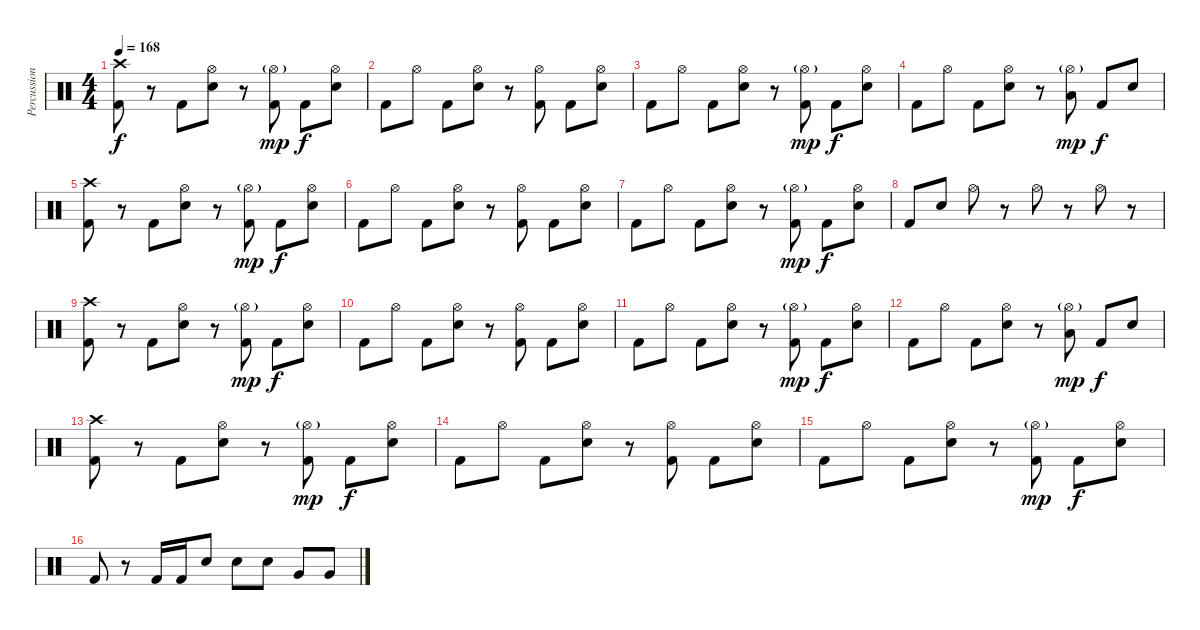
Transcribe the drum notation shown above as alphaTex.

\track ("Percussion" "Percussion") {instrument percussion}
\staff {score}
\articulation defaults
\ts (4 4)
\tempo 168
\clef neutral
\ks c
("Crash high (hit)" "Kick (hit) 2").8{dy f} r.8 "Kick (hit) 2".8 ("Hi-Hat (open)" "Snare (hit) 2").8 r.8 ("Hi-Hat (open)"{g} "Kick (hit) 2").8{dy mp} "Kick (hit) 2".8{dy f} ("Hi-Hat (open)" "Snare (hit) 2").8 |
"Kick (hit) 2".8 "Hi-Hat (open)".8 "Kick (hit) 2".8 ("Hi-Hat (open)" "Snare (hit) 2").8 r.8 ("Hi-Hat (open)" "Kick (hit) 2").8 "Kick (hit) 2".8 ("Hi-Hat (open)" "Snare (hit) 2").8 |
"Kick (hit) 2".8 "Hi-Hat (open)".8 "Kick (hit) 2".8 ("Hi-Hat (open)" "Snare (hit) 2").8 r.8 ("Hi-Hat (open)"{g} "Kick (hit) 2").8{dy mp} "Kick (hit) 2".8{dy f} ("Hi-Hat (open)" "Snare (hit) 2").8 |
"Kick (hit) 2".8 "Hi-Hat (open)".8 "Kick (hit) 2".8 ("Hi-Hat (open)" "Snare (hit) 2").8 r.8 ("Hi-Hat (open)"{g} "Low Tom (hit)").8{dy mp} "Kick (hit) 2".8{dy f} "Snare (hit) 2".8 |
("Crash high (hit)" "Kick (hit) 2").8 r.8 "Kick (hit) 2".8 ("Hi-Hat (open)" "Snare (hit) 2").8 r.8 ("Hi-Hat (open)"{g} "Kick (hit) 2").8{dy mp} "Kick (hit) 2".8{dy f} ("Hi-Hat (open)" "Snare (hit) 2").8 |
"Kick (hit) 2".8 "Hi-Hat (open)".8 "Kick (hit) 2".8 ("Hi-Hat (open)" "Snare (hit) 2").8 r.8 ("Hi-Hat (open)" "Kick (hit) 2").8 "Kick (hit) 2".8 ("Hi-Hat (open)" "Snare (hit) 2").8 |
"Kick (hit) 2".8 "Hi-Hat (open)".8 "Kick (hit) 2".8 ("Hi-Hat (open)" "Snare (hit) 2").8 r.8 ("Hi-Hat (open)"{g} "Kick (hit) 2").8{dy mp} "Kick (hit) 2".8{dy f} ("Hi-Hat (open)" "Snare (hit) 2").8 |
"Kick (hit) 2".8 "Snare (hit) 2".8 "Hi-Hat (open)".8 r.8 "Hi-Hat (open)".8 r.8 "Hi-Hat (open)".8 r.8 |
("Crash high (hit)" "Kick (hit) 2").8 r.8 "Kick (hit) 2".8 ("Hi-Hat (open)" "Snare (hit) 2").8 r.8 ("Hi-Hat (open)"{g} "Kick (hit) 2").8{dy mp} "Kick (hit) 2".8{dy f} ("Hi-Hat (open)" "Snare (hit) 2").8 |
"Kick (hit) 2".8 "Hi-Hat (open)".8 "Kick (hit) 2".8 ("Hi-Hat (open)" "Snare (hit) 2").8 r.8 ("Hi-Hat (open)" "Kick (hit) 2").8 "Kick (hit) 2".8 ("Hi-Hat (open)" "Snare (hit) 2").8 |
"Kick (hit) 2".8 "Hi-Hat (open)".8 "Kick (hit) 2".8 ("Hi-Hat (open)" "Snare (hit) 2").8 r.8 ("Hi-Hat (open)"{g} "Kick (hit) 2").8{dy mp} "Kick (hit) 2".8{dy f} ("Hi-Hat (open)" "Snare (hit) 2").8 |
"Kick (hit) 2".8 "Hi-Hat (open)".8 "Kick (hit) 2".8 ("Hi-Hat (open)" "Snare (hit) 2").8 r.8 ("Hi-Hat (open)"{g} "Low Tom (hit)").8{dy mp} "Kick (hit) 2".8{dy f} "Snare (hit) 2".8 |
("Crash high (hit)" "Kick (hit) 2").8 r.8 "Kick (hit) 2".8 ("Hi-Hat (open)" "Snare (hit) 2").8 r.8 ("Hi-Hat (open)"{g} "Kick (hit) 2").8{dy mp} "Kick (hit) 2".8{dy f} ("Hi-Hat (open)" "Snare (hit) 2").8 |
"Kick (hit) 2".8 "Hi-Hat (open)".8 "Kick (hit) 2".8 ("Hi-Hat (open)" "Snare (hit) 2").8 r.8 ("Hi-Hat (open)" "Kick (hit) 2").8 "Kick (hit) 2".8 ("Hi-Hat (open)" "Snare (hit) 2").8 |
"Kick (hit) 2".8 "Hi-Hat (open)".8 "Kick (hit) 2".8 ("Hi-Hat (open)" "Snare (hit) 2").8 r.8 ("Hi-Hat (open)"{g} "Kick (hit) 2").8{dy mp} "Kick (hit) 2".8{dy f} ("Hi-Hat (open)" "Snare (hit) 2").8 |
"Kick (hit) 2".8 r.8 "Kick (hit) 2".16 "Kick (hit) 2".16 "Snare (hit) 2".8 "Snare (hit) 2".8 "Snare (hit) 2".8 "Very Low Tom (hit)".8 "Very Low Tom (hit)".8
